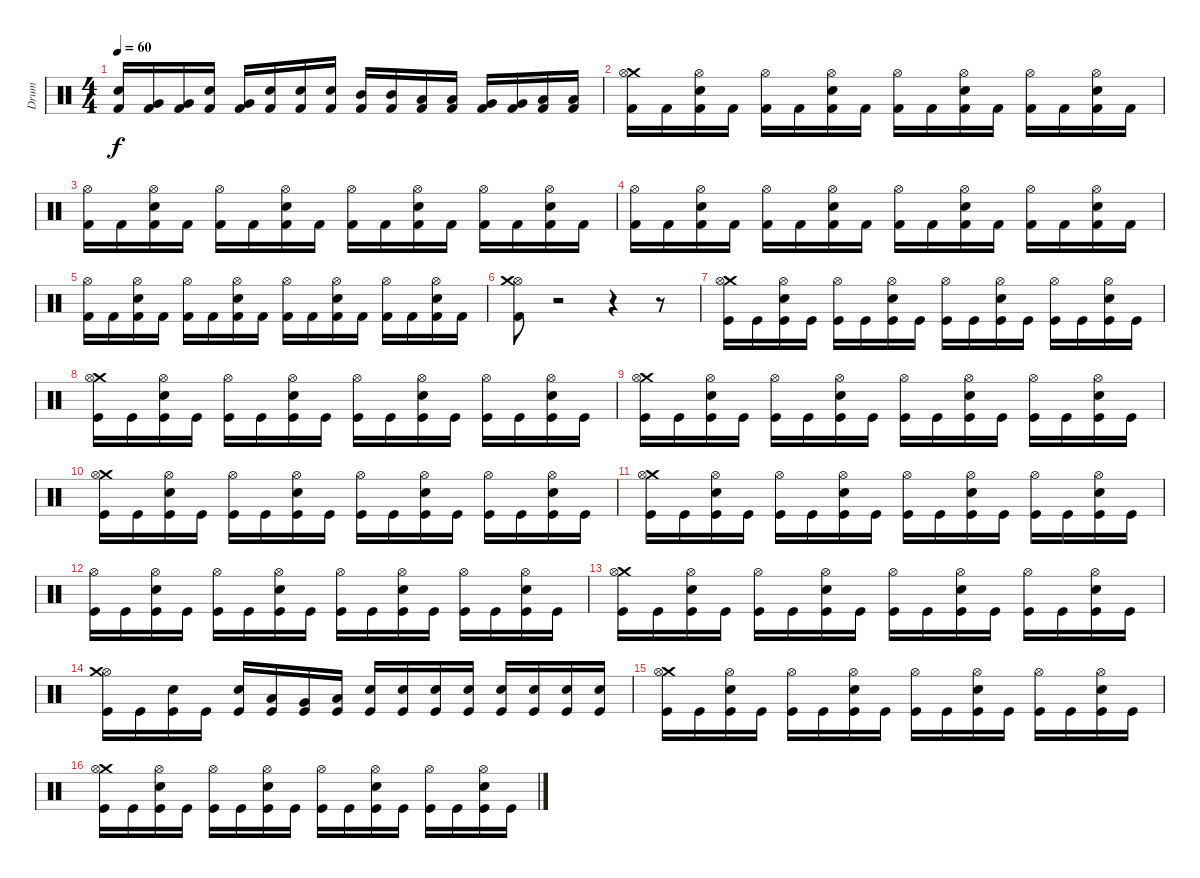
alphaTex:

\track ("Drum" "Drum") {instrument percussion}
\staff {score}
\articulation defaults
\ts (4 4)
\tempo 60
\clef neutral
\ks c
("Electric Snare (hit)" "Kick (hit) 2").16{dy f} ("Very Low Tom (hit)" "Kick (hit) 2").16 ("Very Low Tom (hit)" "Kick (hit) 2").16 ("Electric Snare (hit)" "Kick (hit) 2").16 ("Very Low Tom (hit)" "Kick (hit) 2").16 ("Electric Snare (hit)" "Kick (hit) 2").16 ("Electric Snare (hit)" "Kick (hit) 2").16 ("Electric Snare (hit)" "Kick (hit) 2").16 ("Mid Tom (hit)" "Kick (hit) 2").16 ("Mid Tom (hit)" "Kick (hit) 2").16 ("Low Tom (hit)" "Kick (hit) 2").16 ("Low Tom (hit)" "Kick (hit) 2").16 ("Very Low Tom (hit)" "Kick (hit) 2").16 ("Very Low Tom (hit)" "Kick (hit) 2").16 ("Low Floor Tom (hit)" "Kick (hit) 2").16 ("Low Floor Tom (hit)" "Kick (hit) 2").16 |
("Crash medium (hit)" "Hi-Hat (open)" "Kick (hit) 2").16 "Kick (hit) 2".16 ("Electric Snare (hit)" "Hi-Hat (open)" "Kick (hit) 2").16 "Kick (hit) 2".16 ("Hi-Hat (open)" "Kick (hit) 2").16 "Kick (hit) 2".16 ("Electric Snare (hit)" "Hi-Hat (open)" "Kick (hit) 2").16 "Kick (hit) 2".16 ("Hi-Hat (open)" "Kick (hit) 2").16 "Kick (hit) 2".16 ("Electric Snare (hit)" "Hi-Hat (open)" "Kick (hit) 2").16 "Kick (hit) 2".16 ("Hi-Hat (open)" "Kick (hit) 2").16 "Kick (hit) 2".16 ("Electric Snare (hit)" "Hi-Hat (open)" "Kick (hit) 2").16 "Kick (hit) 2".16 |
("Hi-Hat (open)" "Kick (hit) 2").16 "Kick (hit) 2".16 ("Electric Snare (hit)" "Hi-Hat (open)" "Kick (hit) 2").16 "Kick (hit) 2".16 ("Hi-Hat (open)" "Kick (hit) 2").16 "Kick (hit) 2".16 ("Electric Snare (hit)" "Hi-Hat (open)" "Kick (hit) 2").16 "Kick (hit) 2".16 ("Hi-Hat (open)" "Kick (hit) 2").16 "Kick (hit) 2".16 ("Electric Snare (hit)" "Hi-Hat (open)" "Kick (hit) 2").16 "Kick (hit) 2".16 ("Hi-Hat (open)" "Kick (hit) 2").16 "Kick (hit) 2".16 ("Electric Snare (hit)" "Hi-Hat (open)" "Kick (hit) 2").16 "Kick (hit) 2".16 |
("Hi-Hat (open)" "Kick (hit) 2").16 "Kick (hit) 2".16 ("Electric Snare (hit)" "Hi-Hat (open)" "Kick (hit) 2").16 "Kick (hit) 2".16 ("Hi-Hat (open)" "Kick (hit) 2").16 "Kick (hit) 2".16 ("Electric Snare (hit)" "Hi-Hat (open)" "Kick (hit) 2").16 "Kick (hit) 2".16 ("Hi-Hat (open)" "Kick (hit) 2").16 "Kick (hit) 2".16 ("Electric Snare (hit)" "Hi-Hat (open)" "Kick (hit) 2").16 "Kick (hit) 2".16 ("Hi-Hat (open)" "Kick (hit) 2").16 "Kick (hit) 2".16 ("Electric Snare (hit)" "Hi-Hat (open)" "Kick (hit) 2").16 "Kick (hit) 2".16 |
("Hi-Hat (open)" "Kick (hit) 2").16 "Kick (hit) 2".16 ("Electric Snare (hit)" "Hi-Hat (open)" "Kick (hit) 2").16 "Kick (hit) 2".16 ("Hi-Hat (open)" "Kick (hit) 2").16 "Kick (hit) 2".16 ("Electric Snare (hit)" "Hi-Hat (open)" "Kick (hit) 2").16 "Kick (hit) 2".16 ("Hi-Hat (open)" "Kick (hit) 2").16 "Kick (hit) 2".16 ("Electric Snare (hit)" "Hi-Hat (open)" "Kick (hit) 2").16 "Kick (hit) 2".16 ("Hi-Hat (open)" "Kick (hit) 2").16 "Kick (hit) 2".16 ("Electric Snare (hit)" "Hi-Hat (open)" "Kick (hit) 2").16 "Kick (hit) 2".16 |
("Hi-Hat (open)" "Crash medium (hit)" "Kick (hit) 2").8 r.2 r.4 r.8 |
("Crash medium (hit)" "Hi-Hat (open)" "Kick (hit)").16 "Kick (hit)".16 ("Electric Snare (hit)" "Hi-Hat (open)" "Kick (hit)").16 "Kick (hit)".16 ("Hi-Hat (open)" "Kick (hit)").16 "Kick (hit)".16 ("Electric Snare (hit)" "Hi-Hat (open)" "Kick (hit)").16 "Kick (hit)".16 ("Hi-Hat (open)" "Kick (hit)").16 "Kick (hit)".16 ("Electric Snare (hit)" "Hi-Hat (open)" "Kick (hit)").16 "Kick (hit)".16 ("Hi-Hat (open)" "Kick (hit)").16 "Kick (hit)".16 ("Electric Snare (hit)" "Hi-Hat (open)" "Kick (hit)").16 "Kick (hit)".16 |
("Crash medium (hit)" "Hi-Hat (open)" "Kick (hit)").16 "Kick (hit)".16 ("Electric Snare (hit)" "Hi-Hat (open)" "Kick (hit)").16 "Kick (hit)".16 ("Hi-Hat (open)" "Kick (hit)").16 "Kick (hit)".16 ("Electric Snare (hit)" "Hi-Hat (open)" "Kick (hit)").16 "Kick (hit)".16 ("Hi-Hat (open)" "Kick (hit)").16 "Kick (hit)".16 ("Electric Snare (hit)" "Hi-Hat (open)" "Kick (hit)").16 "Kick (hit)".16 ("Hi-Hat (open)" "Kick (hit)").16 "Kick (hit)".16 ("Electric Snare (hit)" "Hi-Hat (open)" "Kick (hit)").16 "Kick (hit)".16 |
("Crash medium (hit)" "Hi-Hat (open)" "Kick (hit)").16 "Kick (hit)".16 ("Electric Snare (hit)" "Hi-Hat (open)" "Kick (hit)").16 "Kick (hit)".16 ("Hi-Hat (open)" "Kick (hit)").16 "Kick (hit)".16 ("Electric Snare (hit)" "Hi-Hat (open)" "Kick (hit)").16 "Kick (hit)".16 ("Hi-Hat (open)" "Kick (hit)").16 "Kick (hit)".16 ("Electric Snare (hit)" "Hi-Hat (open)" "Kick (hit)").16 "Kick (hit)".16 ("Hi-Hat (open)" "Kick (hit)").16 "Kick (hit)".16 ("Electric Snare (hit)" "Hi-Hat (open)" "Kick (hit)").16 "Kick (hit)".16 |
("Crash medium (hit)" "Hi-Hat (open)" "Kick (hit)").16 "Kick (hit)".16 ("Electric Snare (hit)" "Hi-Hat (open)" "Kick (hit)").16 "Kick (hit)".16 ("Hi-Hat (open)" "Kick (hit)").16 "Kick (hit)".16 ("Electric Snare (hit)" "Hi-Hat (open)" "Kick (hit)").16 "Kick (hit)".16 ("Hi-Hat (open)" "Kick (hit)").16 "Kick (hit)".16 ("Electric Snare (hit)" "Hi-Hat (open)" "Kick (hit)").16 "Kick (hit)".16 ("Hi-Hat (open)" "Kick (hit)").16 "Kick (hit)".16 ("Electric Snare (hit)" "Hi-Hat (open)" "Kick (hit)").16 "Kick (hit)".16 |
("Crash medium (hit)" "Hi-Hat (open)" "Kick (hit)").16 "Kick (hit)".16 ("Electric Snare (hit)" "Hi-Hat (open)" "Kick (hit)").16 "Kick (hit)".16 ("Hi-Hat (open)" "Kick (hit)").16 "Kick (hit)".16 ("Electric Snare (hit)" "Hi-Hat (open)" "Kick (hit)").16 "Kick (hit)".16 ("Hi-Hat (open)" "Kick (hit)").16 "Kick (hit)".16 ("Electric Snare (hit)" "Hi-Hat (open)" "Kick (hit)").16 "Kick (hit)".16 ("Hi-Hat (open)" "Kick (hit)").16 "Kick (hit)".16 ("Electric Snare (hit)" "Hi-Hat (open)" "Kick (hit)").16 "Kick (hit)".16 |
("Hi-Hat (open)" "Kick (hit)").16 "Kick (hit)".16 ("Electric Snare (hit)" "Hi-Hat (open)" "Kick (hit)").16 "Kick (hit)".16 ("Hi-Hat (open)" "Kick (hit)").16 "Kick (hit)".16 ("Electric Snare (hit)" "Hi-Hat (open)" "Kick (hit)").16 "Kick (hit)".16 ("Hi-Hat (open)" "Kick (hit)").16 "Kick (hit)".16 ("Electric Snare (hit)" "Hi-Hat (open)" "Kick (hit)").16 "Kick (hit)".16 ("Hi-Hat (open)" "Kick (hit)").16 "Kick (hit)".16 ("Electric Snare (hit)" "Hi-Hat (open)" "Kick (hit)").16 "Kick (hit)".16 |
("Crash medium (hit)" "Hi-Hat (open)" "Kick (hit)").16 "Kick (hit)".16 ("Electric Snare (hit)" "Hi-Hat (open)" "Kick (hit)").16 "Kick (hit)".16 ("Hi-Hat (open)" "Kick (hit)").16 "Kick (hit)".16 ("Electric Snare (hit)" "Hi-Hat (open)" "Kick (hit)").16 "Kick (hit)".16 ("Hi-Hat (open)" "Kick (hit)").16 "Kick (hit)".16 ("Electric Snare (hit)" "Hi-Hat (open)" "Kick (hit)").16 "Kick (hit)".16 ("Hi-Hat (open)" "Kick (hit)").16 "Kick (hit)".16 ("Electric Snare (hit)" "Hi-Hat (open)" "Kick (hit)").16 "Kick (hit)".16 |
("Hi-Hat (open)" "Crash medium (hit)" "Kick (hit)").16 "Kick (hit)".16 ("Electric Snare (hit)" "Kick (hit)").16 "Kick (hit)".16 ("Electric Snare (hit)" "Kick (hit)").16 ("Low Tom (hit)" "Kick (hit)").16 ("Very Low Tom (hit)" "Kick (hit)").16 ("Low Floor Tom (hit)" "Kick (hit)").16 ("Electric Snare (hit)" "Kick (hit)").16 ("Electric Snare (hit)" "Kick (hit)").16 ("Electric Snare (hit)" "Kick (hit)").16 ("Electric Snare (hit)" "Kick (hit)").16 ("Electric Snare (hit)" "Kick (hit)").16 ("Electric Snare (hit)" "Kick (hit)").16 ("Electric Snare (hit)" "Kick (hit)").16 ("Electric Snare (hit)" "Kick (hit)").16 |
("Crash medium (hit)" "Hi-Hat (open)" "Kick (hit)").16 "Kick (hit)".16 ("Electric Snare (hit)" "Hi-Hat (open)" "Kick (hit)").16 "Kick (hit)".16 ("Hi-Hat (open)" "Kick (hit)").16 "Kick (hit)".16 ("Electric Snare (hit)" "Hi-Hat (open)" "Kick (hit)").16 "Kick (hit)".16 ("Hi-Hat (open)" "Kick (hit)").16 "Kick (hit)".16 ("Electric Snare (hit)" "Hi-Hat (open)" "Kick (hit)").16 "Kick (hit)".16 ("Hi-Hat (open)" "Kick (hit)").16 "Kick (hit)".16 ("Electric Snare (hit)" "Hi-Hat (open)" "Kick (hit)").16 "Kick (hit)".16 |
("Crash medium (hit)" "Hi-Hat (open)" "Kick (hit)").16 "Kick (hit)".16 ("Electric Snare (hit)" "Hi-Hat (open)" "Kick (hit)").16 "Kick (hit)".16 ("Hi-Hat (open)" "Kick (hit)").16 "Kick (hit)".16 ("Electric Snare (hit)" "Hi-Hat (open)" "Kick (hit)").16 "Kick (hit)".16 ("Hi-Hat (open)" "Kick (hit)").16 "Kick (hit)".16 ("Electric Snare (hit)" "Hi-Hat (open)" "Kick (hit)").16 "Kick (hit)".16 ("Hi-Hat (open)" "Kick (hit)").16 "Kick (hit)".16 ("Electric Snare (hit)" "Hi-Hat (open)" "Kick (hit)").16 "Kick (hit)".16
